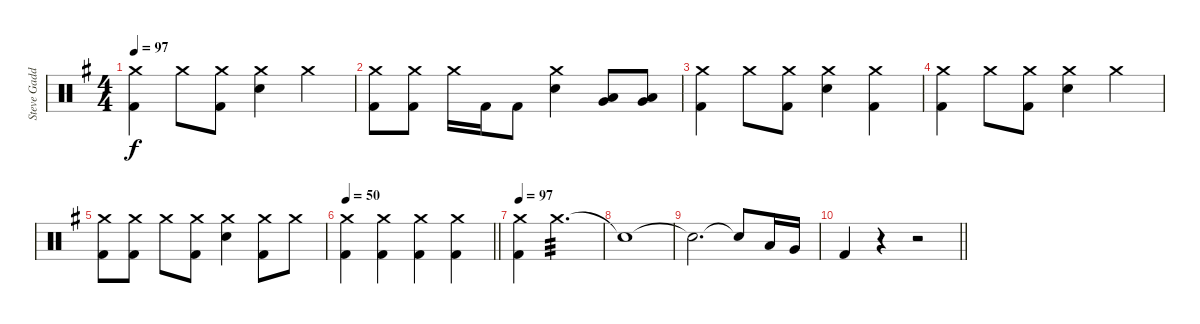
\track ("Steve Gadd" "Steve Gadd") {instrument percussion}
\staff {score}
\articulation defaults
\ts (4 4)
\tempo 97
\clef neutral
\ks g
("Crash medium (hit)" "Kick (hit) 2").4{dy f} "Crash medium (hit)".8 ("Crash medium (hit)" "Kick (hit) 2").8 ("Crash medium (hit)" "Snare (hit) 2").4 "Crash medium (hit)".4 |
("Crash medium (hit)" "Kick (hit) 2").8 ("Crash medium (hit)" "Kick (hit) 2").8 "Crash medium (hit)".16 "Kick (hit) 2".16 "Kick (hit) 2".8 ("Crash medium (hit)" "Snare (hit) 2").4 ("Very Low Tom (hit)" "Low Floor Tom (hit)").8 ("Very Low Tom (hit)" "Low Floor Tom (hit)").8 |
("Crash medium (hit)" "Kick (hit) 2").4 "Crash medium (hit)".8 ("Crash medium (hit)" "Kick (hit) 2").8 ("Crash medium (hit)" "Snare (hit) 2").4 ("Crash medium (hit)" "Kick (hit) 2").4 |
("Crash medium (hit)" "Kick (hit) 2").4 "Crash medium (hit)".8 ("Crash medium (hit)" "Kick (hit) 2").8 ("Crash medium (hit)" "Snare (hit) 2").4 "Crash medium (hit)".4 |
("Crash medium (hit)" "Kick (hit) 2").8 ("Crash medium (hit)" "Kick (hit) 2").8 "Crash medium (hit)".8 ("Crash medium (hit)" "Kick (hit) 2").8 ("Crash medium (hit)" "Snare (hit) 2").4 ("Crash medium (hit)" "Kick (hit) 2").8 "Crash medium (hit)".8 |
\tempo 50
\barLineRight lightlight
("Crash medium (hit)" "Kick (hit) 2").4 ("Crash medium (hit)" "Kick (hit) 2").4 ("Crash medium (hit)" "Kick (hit) 2").4 ("Crash medium (hit)" "Kick (hit) 2").4 |
\tempo 97
("Crash medium (hit)" "Kick (hit) 2").4 "Crash medium (hit)".2{d tp 3} |
"Snare (hit)"{t}.1 |
"Snare (hit)"{t}.2{d} "Snare (hit)"{t}.8 "Low Tom (hit)".16 "Very Low Tom (hit)".16 |
\barLineRight lightlight "Kick (hit) 2".4
r.4 r.2
